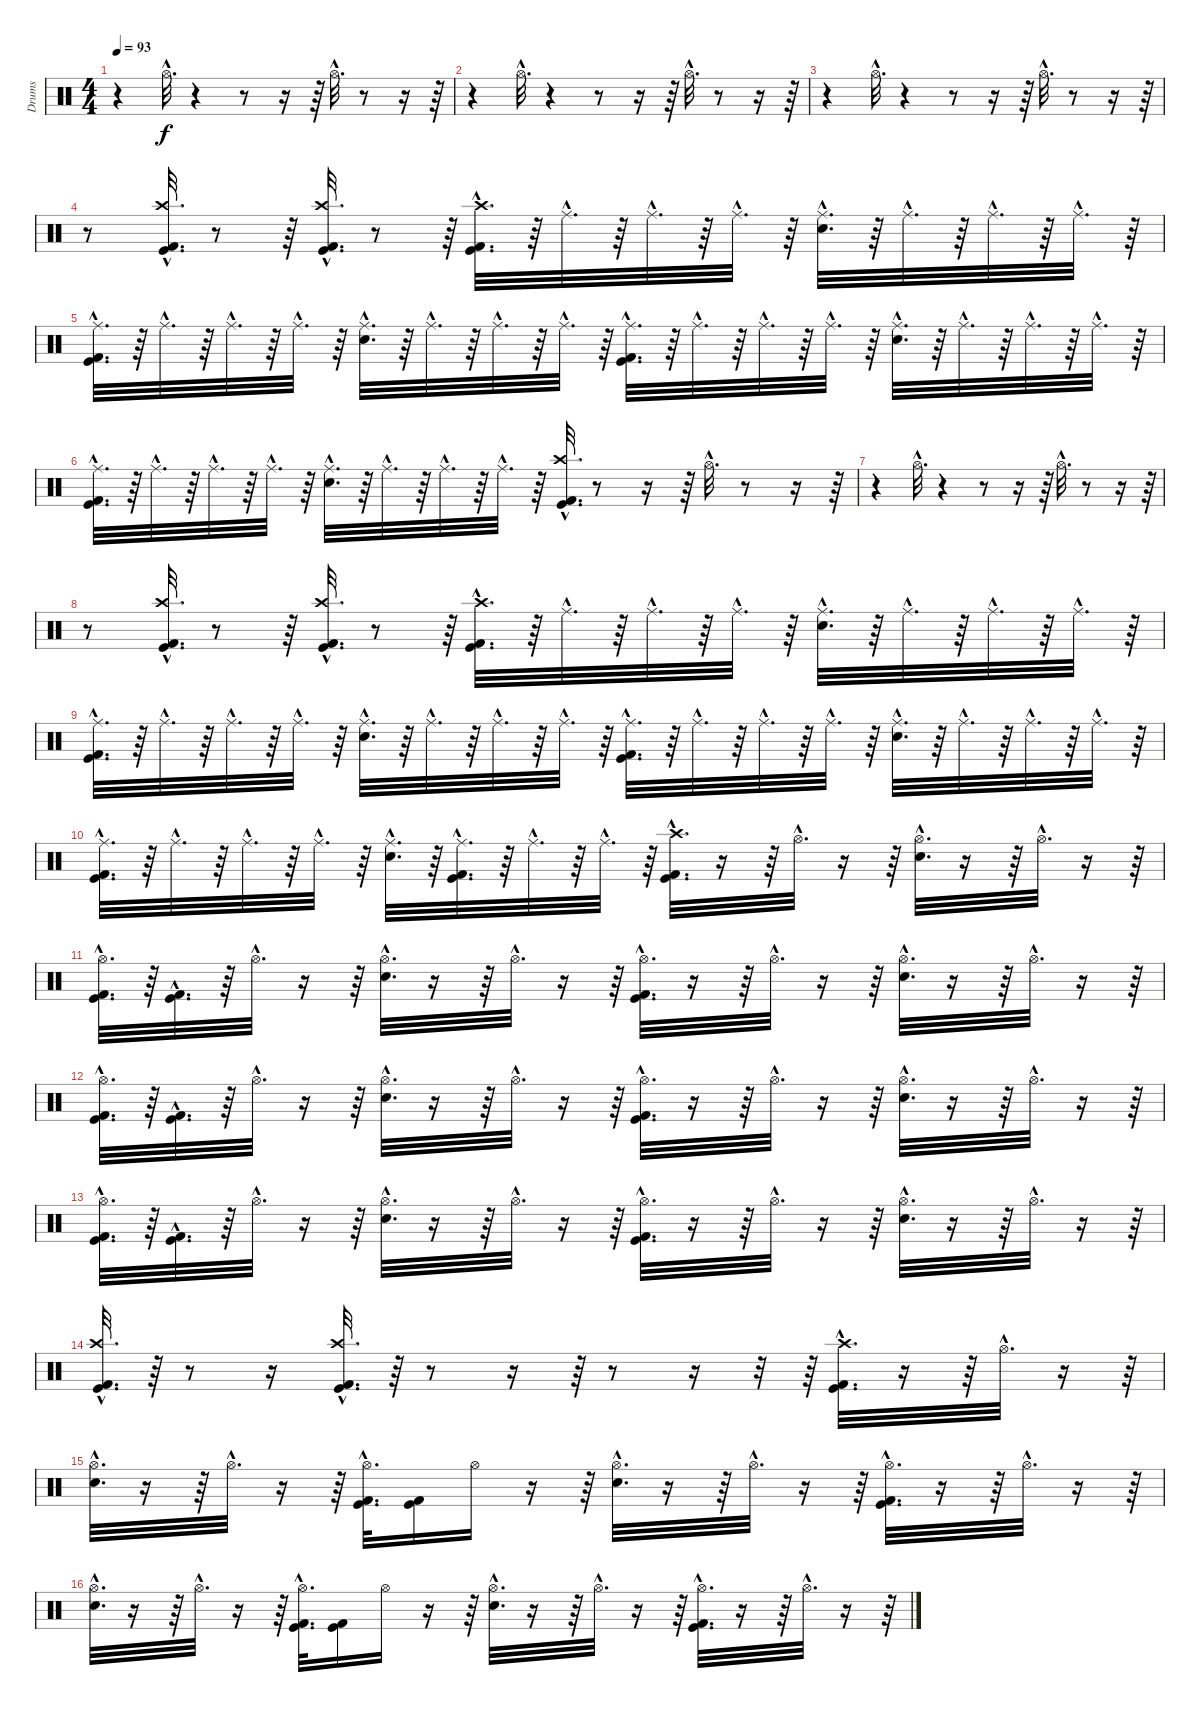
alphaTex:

\track ("Drums" "Drums") {instrument percussion}
\staff {score}
\articulation defaults
\ts (4 4)
\tempo 93
\clef neutral
\ks c
r.4{dy f} "Hi-Hat (open)"{hac}.32{d} r.4 r.8 r.16 r.64 "Hi-Hat (open)"{hac}.32{d} r.8 r.16 r.64 |
r.4 "Hi-Hat (open)"{hac}.32{d} r.4 r.8 r.16 r.64 "Hi-Hat (open)"{hac}.32{d} r.8 r.16 r.64 |
r.4 "Hi-Hat (open)"{hac}.32{d} r.4 r.8 r.16 r.64 "Hi-Hat (open)"{hac}.32{d} r.8 r.16 r.64 |
r.8 ("Kick (hit)"{hac} "Crash high (hit)"{hac} "Kick (hit) 2"{hac}).32{d} r.8 r.64 ("Kick (hit)"{hac} "Crash high (hit)"{hac} "Kick (hit) 2"{hac}).32{d} r.8 r.64 ("Kick (hit)"{hac} "Crash high (hit)"{hac} "Kick (hit) 2"{hac}).32{d} r.64 "Ride (middle)"{hac}.32{d} r.64 "Ride (middle)"{hac}.32{d} r.64 "Ride (middle)"{hac}.32{d} r.64 ("Snare (hit) 2"{hac} "Ride (middle)"{hac}).32{d} r.64 "Ride (middle)"{hac}.32{d} r.64 "Ride (middle)"{hac}.32{d} r.64 "Ride (middle)"{hac}.32{d} r.64 |
("Kick (hit)"{hac} "Kick (hit) 2"{hac} "Ride (middle)"{hac}).32{d} r.64 "Ride (middle)"{hac}.32{d} r.64 "Ride (middle)"{hac}.32{d} r.64 "Ride (middle)"{hac}.32{d} r.64 ("Snare (hit) 2"{hac} "Ride (middle)"{hac}).32{d} r.64 "Ride (middle)"{hac}.32{d} r.64 "Ride (middle)"{hac}.32{d} r.64 "Ride (middle)"{hac}.32{d} r.64 ("Kick (hit)"{hac} "Kick (hit) 2"{hac} "Ride (middle)"{hac}).32{d} r.64 "Ride (middle)"{hac}.32{d} r.64 "Ride (middle)"{hac}.32{d} r.64 "Ride (middle)"{hac}.32{d} r.64 ("Snare (hit) 2"{hac} "Ride (middle)"{hac}).32{d} r.64 "Ride (middle)"{hac}.32{d} r.64 "Ride (middle)"{hac}.32{d} r.64 "Ride (middle)"{hac}.32{d} r.64 |
("Kick (hit)"{hac} "Kick (hit) 2"{hac} "Ride (middle)"{hac}).32{d} r.64 "Ride (middle)"{hac}.32{d} r.64 "Ride (middle)"{hac}.32{d} r.64 "Ride (middle)"{hac}.32{d} r.64 ("Snare (hit) 2"{hac} "Ride (middle)"{hac}).32{d} r.64 "Ride (middle)"{hac}.32{d} r.64 "Ride (middle)"{hac}.32{d} r.64 "Ride (middle)"{hac}.32{d} r.64 ("Kick (hit)"{hac} "Crash high (hit)"{hac} "Kick (hit) 2"{hac}).32{d} r.8 r.16 r.64 "Hi-Hat (open)"{hac}.32{d} r.8 r.16 r.64 |
r.4 "Hi-Hat (open)"{hac}.32{d} r.4 r.8 r.16 r.64 "Hi-Hat (open)"{hac}.32{d} r.8 r.16 r.64 |
r.8 ("Kick (hit)"{hac} "Crash high (hit)"{hac} "Kick (hit) 2"{hac}).32{d} r.8 r.64 ("Kick (hit)"{hac} "Crash high (hit)"{hac} "Kick (hit) 2"{hac}).32{d} r.8 r.64 ("Kick (hit)"{hac} "Crash high (hit)"{hac} "Kick (hit) 2"{hac}).32{d} r.64 "Ride (middle)"{hac}.32{d} r.64 "Ride (middle)"{hac}.32{d} r.64 "Ride (middle)"{hac}.32{d} r.64 ("Snare (hit) 2"{hac} "Ride (middle)"{hac}).32{d} r.64 "Ride (middle)"{hac}.32{d} r.64 "Ride (middle)"{hac}.32{d} r.64 "Ride (middle)"{hac}.32{d} r.64 |
("Kick (hit)"{hac} "Kick (hit) 2"{hac} "Ride (middle)"{hac}).32{d} r.64 "Ride (middle)"{hac}.32{d} r.64 "Ride (middle)"{hac}.32{d} r.64 "Ride (middle)"{hac}.32{d} r.64 ("Snare (hit) 2"{hac} "Ride (middle)"{hac}).32{d} r.64 "Ride (middle)"{hac}.32{d} r.64 "Ride (middle)"{hac}.32{d} r.64 "Ride (middle)"{hac}.32{d} r.64 ("Kick (hit)"{hac} "Kick (hit) 2"{hac} "Ride (middle)"{hac}).32{d} r.64 "Ride (middle)"{hac}.32{d} r.64 "Ride (middle)"{hac}.32{d} r.64 "Ride (middle)"{hac}.32{d} r.64 ("Snare (hit) 2"{hac} "Ride (middle)"{hac}).32{d} r.64 "Ride (middle)"{hac}.32{d} r.64 "Ride (middle)"{hac}.32{d} r.64 "Ride (middle)"{hac}.32{d} r.64 |
("Kick (hit)"{hac} "Kick (hit) 2"{hac} "Ride (middle)"{hac}).32{d} r.64 "Ride (middle)"{hac}.32{d} r.64 "Ride (middle)"{hac}.32{d} r.64 "Ride (middle)"{hac}.32{d} r.64 ("Snare (hit) 2"{hac} "Ride (middle)"{hac}).32{d} r.64 ("Kick (hit)"{hac} "Kick (hit) 2"{hac} "Ride (middle)"{hac}).32{d} r.64 "Ride (middle)"{hac}.32{d} r.64 "Ride (middle)"{hac}.32{d} r.64 ("Kick (hit)"{hac} "Crash high (hit)"{hac} "Kick (hit) 2"{hac}).32{d} r.16 r.64 "Hi-Hat (open)"{hac}.32{d} r.16 r.64 ("Hi-Hat (open)"{hac} "Snare (hit) 2"{hac}).32{d} r.16 r.64 "Hi-Hat (open)"{hac}.32{d} r.16 r.64 |
("Kick (hit)"{hac} "Hi-Hat (open)"{hac} "Kick (hit) 2"{hac}).32{d} r.64 ("Kick (hit)"{hac} "Kick (hit) 2"{hac}).32{d} r.64 "Hi-Hat (open)"{hac}.32{d} r.16 r.64 ("Hi-Hat (open)"{hac} "Snare (hit) 2"{hac}).32{d} r.16 r.64 "Hi-Hat (open)"{hac}.32{d} r.16 r.64 ("Kick (hit)"{hac} "Hi-Hat (open)"{hac} "Kick (hit) 2"{hac}).32{d} r.16 r.64 "Hi-Hat (open)"{hac}.32{d} r.16 r.64 ("Hi-Hat (open)"{hac} "Snare (hit) 2"{hac}).32{d} r.16 r.64 "Hi-Hat (open)"{hac}.32{d} r.16 r.64 |
("Kick (hit)"{hac} "Hi-Hat (open)"{hac} "Kick (hit) 2"{hac}).32{d} r.64 ("Kick (hit)"{hac} "Kick (hit) 2"{hac}).32{d} r.64 "Hi-Hat (open)"{hac}.32{d} r.16 r.64 ("Hi-Hat (open)"{hac} "Snare (hit) 2"{hac}).32{d} r.16 r.64 "Hi-Hat (open)"{hac}.32{d} r.16 r.64 ("Kick (hit)"{hac} "Hi-Hat (open)"{hac} "Kick (hit) 2"{hac}).32{d} r.16 r.64 "Hi-Hat (open)"{hac}.32{d} r.16 r.64 ("Hi-Hat (open)"{hac} "Snare (hit) 2"{hac}).32{d} r.16 r.64 "Hi-Hat (open)"{hac}.32{d} r.16 r.64 |
("Kick (hit)"{hac} "Hi-Hat (open)"{hac} "Kick (hit) 2"{hac}).32{d} r.64 ("Kick (hit)"{hac} "Kick (hit) 2"{hac}).32{d} r.64 "Hi-Hat (open)"{hac}.32{d} r.16 r.64 ("Hi-Hat (open)"{hac} "Snare (hit) 2"{hac}).32{d} r.16 r.64 "Hi-Hat (open)"{hac}.32{d} r.16 r.64 ("Kick (hit)"{hac} "Kick (hit) 2"{hac} "Hi-Hat (open)"{hac}).32{d} r.16 r.64 "Hi-Hat (open)"{hac}.32{d} r.16 r.64 ("Snare (hit) 2"{hac} "Hi-Hat (open)"{hac}).32{d} r.16 r.64 "Hi-Hat (open)"{hac}.32{d} r.16 r.64 |
("Kick (hit)"{hac} "Crash high (hit)"{hac} "Kick (hit) 2"{hac}).32{d} r.64 r.8 r.16 ("Kick (hit)"{hac} "Crash high (hit)"{hac} "Kick (hit) 2"{hac}).32{d} r.64 r.8 r.16 r.64 r.8 r.16 r.32 r.64 ("Kick (hit)"{hac} "Kick (hit) 2"{hac} "Crash high (hit)"{hac}).32{d} r.16 r.64 "Hi-Hat (open)"{hac}.32{d} r.16 r.64 |
("Snare (hit) 2"{hac} "Hi-Hat (open)"{hac}).32{d} r.16 r.64 "Hi-Hat (open)"{hac}.32{d} r.16 r.64 ("Kick (hit)"{hac} "Kick (hit) 2"{hac} "Hi-Hat (open)"{hac}).32{d} ("Kick (hit)" "Kick (hit) 2").16 "Hi-Hat (open)".16 r.16 r.64 ("Snare (hit) 2"{hac} "Hi-Hat (open)"{hac}).32{d} r.16 r.64 "Hi-Hat (open)"{hac}.32{d} r.16 r.64 ("Kick (hit)"{hac} "Kick (hit) 2"{hac} "Hi-Hat (open)"{hac}).32{d} r.16 r.64 "Hi-Hat (open)"{hac}.32{d} r.16 r.64 |
("Snare (hit) 2"{hac} "Hi-Hat (open)"{hac}).32{d} r.16 r.64 "Hi-Hat (open)"{hac}.32{d} r.16 r.64 ("Kick (hit)"{hac} "Kick (hit) 2"{hac} "Hi-Hat (open)"{hac}).32{d} ("Kick (hit)" "Kick (hit) 2").16 "Hi-Hat (open)".16 r.16 r.64 ("Snare (hit) 2"{hac} "Hi-Hat (open)"{hac}).32{d} r.16 r.64 "Hi-Hat (open)"{hac}.32{d} r.16 r.64 ("Kick (hit)"{hac} "Kick (hit) 2"{hac} "Hi-Hat (open)"{hac}).32{d} r.16 r.64 "Hi-Hat (open)"{hac}.32{d} r.16 r.64
